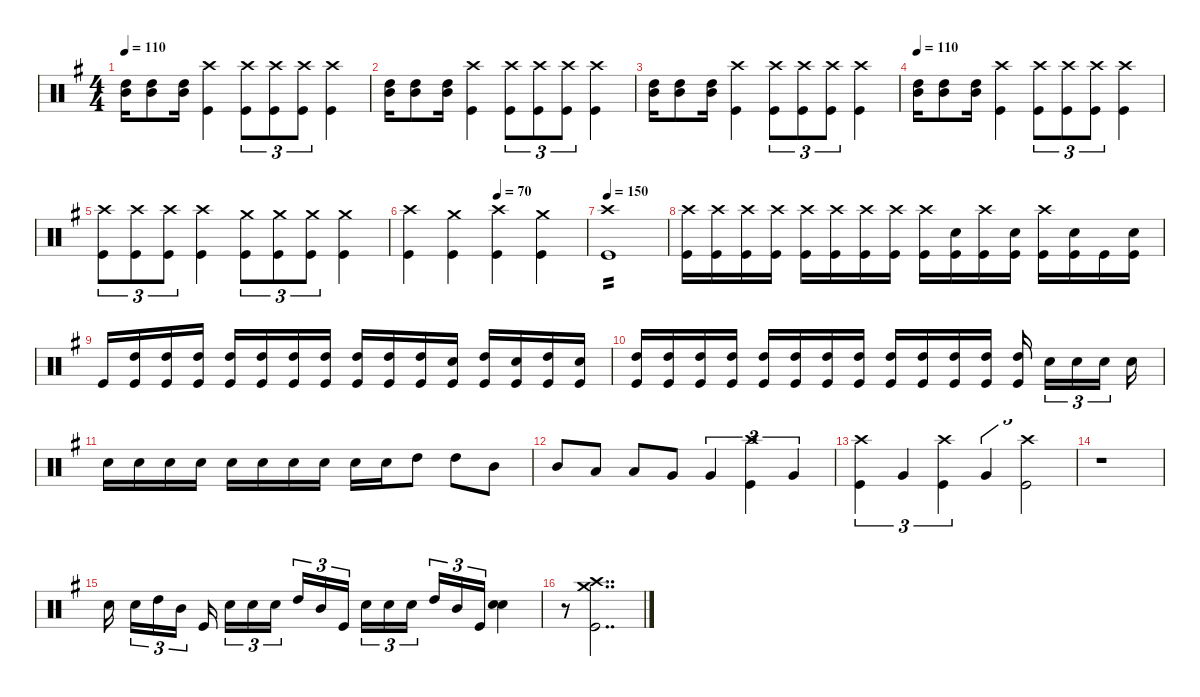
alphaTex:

\defaultSystemsLayout 4
\hideDynamics
\bracketExtendMode nobrackets
\otherSystemsTrackNameOrientation horizontal
\track ("Drums" " ") {instrument percussion}
\staff
\articulation defaults
\ts (4 4)
\tempo 110
\clef neutral
\ks eminor
("High Tom (hit)"{acc forcenatural} "Mid Tom (hit)"{acc forcenatural}).16{dy ff} ("High Tom (hit)"{acc forcenatural} "Mid Tom (hit)"{acc forcenatural}).8 ("High Tom (hit)"{acc forcenatural} "Mid Tom (hit)"{acc forcenatural}).16 ("Kick (hit)"{acc forcenatural} "Crash high (hit)"{acc forcenatural}).4{dy f} ("Kick (hit)"{acc forcenatural} "Crash high (hit)"{acc forcenatural}).8{tu (3 2)} ("Kick (hit)"{acc forcenatural} "Crash high (hit)"{acc forcenatural}).8{tu (3 2)} ("Kick (hit)"{acc forcenatural} "Crash high (hit)"{acc forcenatural}).8{tu (3 2)} ("Kick (hit)"{acc forcenatural} "Crash high (hit)"{acc forcenatural}).4 |
("High Tom (hit)"{acc forcenatural} "Mid Tom (hit)"{acc forcenatural}).16{dy ff} ("High Tom (hit)"{acc forcenatural} "Mid Tom (hit)"{acc forcenatural}).8 ("High Tom (hit)"{acc forcenatural} "Mid Tom (hit)"{acc forcenatural}).16 ("Kick (hit)"{acc forcenatural} "Crash high (hit)"{acc forcenatural}).4{dy f} ("Kick (hit)"{acc forcenatural} "Crash high (hit)"{acc forcenatural}).8{tu (3 2)} ("Kick (hit)"{acc forcenatural} "Crash high (hit)"{acc forcenatural}).8{tu (3 2)} ("Kick (hit)"{acc forcenatural} "Crash high (hit)"{acc forcenatural}).8{tu (3 2)} ("Kick (hit)"{acc forcenatural} "Crash high (hit)"{acc forcenatural}).4 |
("High Tom (hit)"{acc forcenatural} "Mid Tom (hit)"{acc forcenatural}).16{dy ff} ("High Tom (hit)"{acc forcenatural} "Mid Tom (hit)"{acc forcenatural}).8 ("High Tom (hit)"{acc forcenatural} "Mid Tom (hit)"{acc forcenatural}).16 ("Kick (hit)"{acc forcenatural} "Crash high (hit)"{acc forcenatural}).4{dy f} ("Kick (hit)"{acc forcenatural} "Crash high (hit)"{acc forcenatural}).8{tu (3 2)} ("Kick (hit)"{acc forcenatural} "Crash high (hit)"{acc forcenatural}).8{tu (3 2)} ("Kick (hit)"{acc forcenatural} "Crash high (hit)"{acc forcenatural}).8{tu (3 2)} ("Kick (hit)"{acc forcenatural} "Crash high (hit)"{acc forcenatural}).4 |
\tempo 110
("High Tom (hit)"{acc forcenatural} "Mid Tom (hit)"{acc forcenatural}).16{dy ff} ("High Tom (hit)"{acc forcenatural} "Mid Tom (hit)"{acc forcenatural}).8 ("High Tom (hit)"{acc forcenatural} "Mid Tom (hit)"{acc forcenatural}).16 ("Kick (hit)"{acc forcenatural} "Crash high (hit)"{acc forcenatural}).4{dy f} ("Kick (hit)"{acc forcenatural} "Crash high (hit)"{acc forcenatural}).8{tu (3 2)} ("Kick (hit)"{acc forcenatural} "Crash high (hit)"{acc forcenatural}).8{tu (3 2)} ("Kick (hit)"{acc forcenatural} "Crash high (hit)"{acc forcenatural}).8{tu (3 2)} ("Kick (hit)"{acc forcenatural} "Crash high (hit)"{acc forcenatural}).4 |
("Kick (hit)"{acc forcenatural} "Crash high (hit)"{acc forcenatural}).8{tu (3 2)} ("Kick (hit)"{acc forcenatural} "Crash high (hit)"{acc forcenatural}).8{tu (3 2)} ("Kick (hit)"{acc forcenatural} "Crash high (hit)"{acc forcenatural}).8{tu (3 2)} ("Kick (hit)"{acc forcenatural} "Crash high (hit)"{acc forcenatural}).4 ("Kick (hit)"{acc forcenatural} "Crash medium (hit)"{acc forcenatural}).8{tu (3 2)} ("Kick (hit)"{acc forcenatural} "Crash medium (hit)"{acc forcenatural}).8{tu (3 2)} ("Kick (hit)"{acc forcenatural} "Crash medium (hit)"{acc forcenatural}).8{tu (3 2)} ("Kick (hit)"{acc forcenatural} "Crash medium (hit)"{acc forcenatural}).4 |
\tempo (70 0.5)
("Kick (hit)"{acc forcenatural} "Crash high (hit)"{acc forcenatural}).4 ("Kick (hit)"{acc forcenatural} "Crash medium (hit)"{acc forcenatural}).4 ("Kick (hit)"{acc forcenatural} "Crash high (hit)"{acc forcenatural}).4 ("Kick (hit)"{acc forcenatural} "Crash medium (hit)"{acc forcenatural}).4 |
\tempo 150
("Kick (hit)"{acc forcenatural} "Crash high (hit)"{acc forcenatural}).1{tp 2} |
("Kick (hit)"{acc forcenatural} "Crash high (hit)"{acc forcenatural}).16 ("Kick (hit)"{acc forcenatural} "Crash high (hit)"{acc forcenatural}).16 ("Kick (hit)"{acc forcenatural} "Crash high (hit)"{acc forcenatural}).16 ("Kick (hit)"{acc forcenatural} "Crash high (hit)"{acc forcenatural}).16 ("Kick (hit)"{acc forcenatural} "Crash high (hit)"{acc forcenatural}).16 ("Kick (hit)"{acc forcenatural} "Crash high (hit)"{acc forcenatural}).16 ("Kick (hit)"{acc forcenatural} "Crash high (hit)"{acc forcenatural}).16 ("Kick (hit)"{acc forcenatural} "Crash high (hit)"{acc forcenatural}).16 ("Kick (hit)"{acc forcenatural} "Crash high (hit)"{acc forcenatural}).16 ("Kick (hit)"{acc forcenatural} "Snare (hit) 2"{acc forcenatural}).16 ("Kick (hit)"{acc forcenatural} "Crash high (hit)"{acc forcenatural}).16 ("Kick (hit)"{acc forcenatural} "Snare (hit) 2"{acc forcenatural}).16 ("Kick (hit)"{acc forcenatural} "Crash high (hit)"{acc forcenatural}).16 ("Kick (hit)"{acc forcenatural} "Snare (hit) 2"{acc forcenatural}).16 "Kick (hit)"{acc forcenatural}.16 ("Kick (hit)"{acc forcenatural} "Snare (hit) 2"{acc forcenatural}).16 |
"Kick (hit)"{acc forcenatural}.16 ("Kick (hit)"{acc forcenatural} "High Tom (hit)"{acc forcenatural}).16{dy ff} ("Kick (hit)"{acc forcenatural} "High Tom (hit)"{acc forcenatural}).16 ("Kick (hit)"{acc forcenatural} "High Tom (hit)"{acc forcenatural}).16 ("Kick (hit)"{acc forcenatural} "High Tom (hit)"{acc forcenatural}).16 ("Kick (hit)"{acc forcenatural} "High Tom (hit)"{acc forcenatural}).16 ("Kick (hit)"{acc forcenatural} "High Tom (hit)"{acc forcenatural}).16 ("Kick (hit)"{acc forcenatural} "High Tom (hit)"{acc forcenatural}).16 ("Kick (hit)"{acc forcenatural} "High Tom (hit)"{acc forcenatural}).16 ("Kick (hit)"{acc forcenatural} "High Tom (hit)"{acc forcenatural}).16 ("Kick (hit)"{acc forcenatural} "High Tom (hit)"{acc forcenatural}).16 ("Kick (hit)"{acc forcenatural} "Snare (hit) 2"{acc forcenatural}).16{dy f} ("Kick (hit)"{acc forcenatural} "High Tom (hit)"{acc forcenatural}).16 ("Kick (hit)"{acc forcenatural} "Snare (hit) 2"{acc forcenatural}).16 ("Kick (hit)"{acc forcenatural} "High Tom (hit)"{acc forcenatural}).16 ("Kick (hit)"{acc forcenatural} "Snare (hit) 2"{acc forcenatural}).16 |
("Kick (hit)"{acc forcenatural} "High Tom (hit)"{acc forcenatural}).16{dy ff} ("Kick (hit)"{acc forcenatural} "High Tom (hit)"{acc forcenatural}).16 ("Kick (hit)"{acc forcenatural} "High Tom (hit)"{acc forcenatural}).16 ("Kick (hit)"{acc forcenatural} "High Tom (hit)"{acc forcenatural}).16 ("Kick (hit)"{acc forcenatural} "High Tom (hit)"{acc forcenatural}).16 ("Kick (hit)"{acc forcenatural} "High Tom (hit)"{acc forcenatural}).16 ("Kick (hit)"{acc forcenatural} "High Tom (hit)"{acc forcenatural}).16 ("Kick (hit)"{acc forcenatural} "High Tom (hit)"{acc forcenatural}).16 ("Kick (hit)"{acc forcenatural} "High Tom (hit)"{acc forcenatural}).16 ("Kick (hit)"{acc forcenatural} "High Tom (hit)"{acc forcenatural}).16 ("Kick (hit)"{acc forcenatural} "High Tom (hit)"{acc forcenatural}).16 ("Kick (hit)"{acc forcenatural} "High Tom (hit)"{acc forcenatural}).16 ("Kick (hit)"{acc forcenatural} "High Tom (hit)"{acc forcenatural}).16 "Snare (hit) 2"{acc forcenatural}.16{tu (3 2) dy f} "Snare (hit) 2"{acc forcenatural}.16{tu (3 2)} "Snare (hit) 2"{acc forcenatural}.16{tu (3 2)} "Snare (hit) 2"{acc forcenatural}.16 |
"Snare (hit) 2"{acc forcenatural}.16 "Snare (hit) 2"{acc forcenatural}.16 "Snare (hit) 2"{acc forcenatural}.16 "Snare (hit) 2"{acc forcenatural}.16 "Snare (hit) 2"{acc forcenatural}.16 "Snare (hit) 2"{acc forcenatural}.16 "Snare (hit) 2"{acc forcenatural}.16 "Snare (hit) 2"{acc forcenatural}.16 "Snare (hit) 2"{acc forcenatural}.16 "Snare (hit) 2"{acc forcenatural}.16 "High Tom (hit)"{acc forcenatural}.8{dy fff} "High Tom (hit)"{acc forcenatural}.8 "Mid Tom (hit)"{acc forcenatural}.8 |
"Mid Tom (hit)"{acc forcenatural}.8 "Low Tom (hit)"{acc forcenatural}.8 "Low Tom (hit)"{acc forcenatural}.8 "Very Low Tom (hit)"{acc forcenatural}.8 "Very Low Tom (hit)"{acc forcenatural}.4{tu (3 2)} ("Crash high (hit)"{acc forcenatural} "Kick (hit)"{acc forcenatural}).4{tu (3 2) dy f} "Very Low Tom (hit)"{acc forcenatural}.4{tu (3 2) dy fff} |
("Crash high (hit)"{acc forcenatural} "Kick (hit)"{acc forcenatural}).4{tu (3 2) dy f} "Very Low Tom (hit)"{acc forcenatural}.4{tu (3 2) dy fff} ("Crash high (hit)"{acc forcenatural} "Kick (hit)"{acc forcenatural}).4{tu (3 2) dy f} "Very Low Tom (hit)"{acc forcenatural}.4{tu (3 2) dy fff} ("Crash high (hit)"{acc forcenatural} "Kick (hit)"{acc forcenatural}).2{tu (3 2) dy f} |
r.1 |
"Snare (hit) 2"{acc forcenatural}.16{dy mf} "Snare (hit) 2"{acc forcenatural}.16{tu (3 2)} "High Tom (hit)"{acc forcenatural}.16{tu (3 2) dy ff} "Mid Tom (hit)"{acc forcenatural}.16{tu (3 2)} "Kick (hit)"{acc forcenatural}.16{dy mf} "Snare (hit) 2"{acc forcenatural}.16{tu (3 2)} "Snare (hit) 2"{acc forcenatural}.16{tu (3 2)} "Snare (hit) 2"{acc forcenatural}.16{tu (3 2)} "High Tom (hit)"{acc forcenatural}.16{tu (3 2) dy ff} "Mid Tom (hit)"{acc forcenatural}.16{tu (3 2)} "Kick (hit)"{acc forcenatural}.16{tu (3 2) dy mf} "Snare (hit) 2"{acc forcenatural}.16{tu (3 2)} "Snare (hit) 2"{acc forcenatural}.16{tu (3 2)} "Snare (hit) 2"{acc forcenatural}.16{tu (3 2)} "High Tom (hit)"{acc forcenatural}.16{tu (3 2) dy ff} "Mid Tom (hit)"{acc forcenatural}.16{tu (3 2)} "Kick (hit)"{acc forcenatural}.16{tu (3 2) dy mf} ("Snare (hit) 2"{acc forcenatural} "Snare (hit) 2"{acc forcenatural}).4 |
r.8 ("Crash high (hit)"{acc forcenatural} "Kick (hit)"{acc forcenatural} "Crash medium (hit)"{acc forcenatural}).2{dd}
